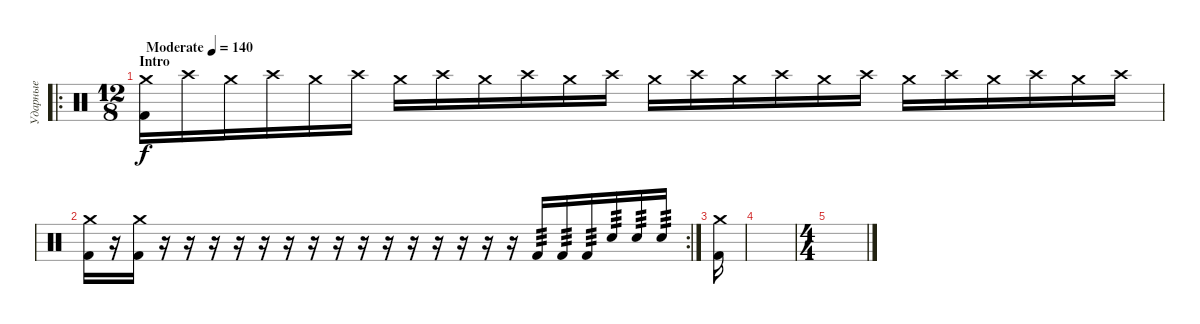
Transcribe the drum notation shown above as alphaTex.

\track ("Ударные" "Ударные") {instrument percussion}
\staff {score}
\articulation defaults
\ro
\ts (12 8)
\section ("" "Intro")
\tempo (140 "Moderate")
\clef neutral
\ks c
("Crash medium (hit)" "Kick (hit) 2").16{dy f} "Crash high (hit)".16 "Crash medium (hit)".16 "Crash high (hit)".16 "Crash medium (hit)".16 "Crash high (hit)".16 "Crash medium (hit)".16 "Crash high (hit)".16 "Crash medium (hit)".16 "Crash high (hit)".16 "Crash medium (hit)".16 "Crash high (hit)".16 "Crash medium (hit)".16 "Crash high (hit)".16 "Crash medium (hit)".16 "Crash high (hit)".16 "Crash medium (hit)".16 "Crash high (hit)".16 "Crash medium (hit)".16 "Crash high (hit)".16 "Crash medium (hit)".16 "Crash high (hit)".16 "Crash medium (hit)".16 "Crash high (hit)".16 |
\rc 2
("Crash medium (hit)" "Kick (hit) 2").16 r.16 ("Crash medium (hit)" "Kick (hit) 2").16 r.16 r.16 r.16 r.16 r.16 r.16 r.16 r.16 r.16 r.16 r.16 r.16 r.16 r.16 r.16 "Kick (hit) 2".16{tp 3} "Kick (hit) 2".16{tp 3} "Kick (hit) 2".16{tp 3} "Electric Snare (hit)".16{tp 3} "Electric Snare (hit)".16{tp 3} "Electric Snare (hit)".16{tp 3} |
("Crash medium (hit)" "Kick (hit) 2").16 |
|
\ts (4 4)
